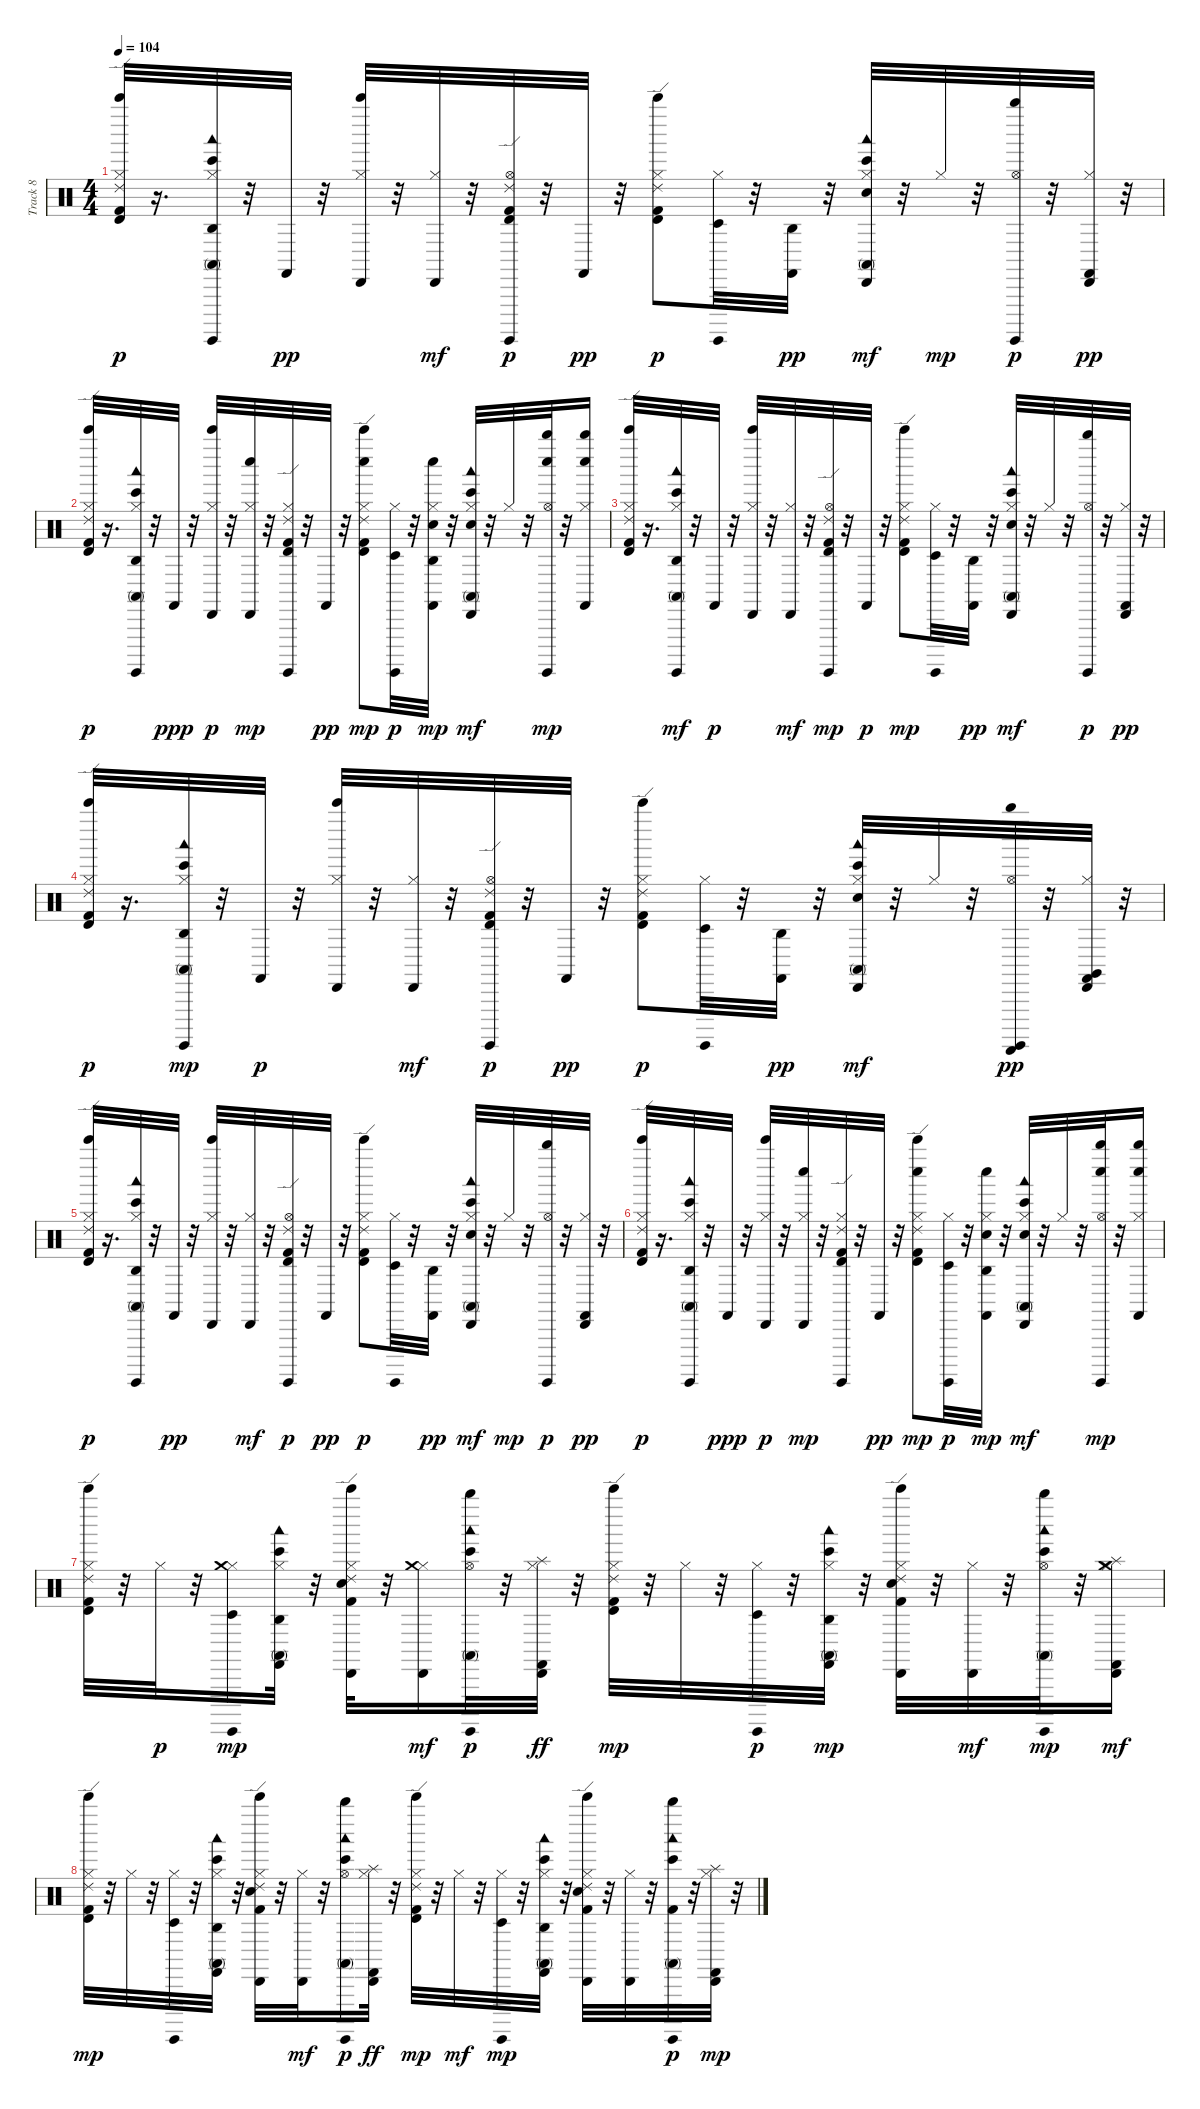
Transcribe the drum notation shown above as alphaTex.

\track ("Track 8" "Track 8") {instrument percussion}
\staff {score}
\articulation defaults
\ts (4 4)
\tempo 104
\clef neutral
\ks c
("Ride (edge) 2" "Timbale high (hit)" "Kick (hit) 2" "Hi-Hat (closed)" "Bell Tree (hit)").32{dy p} r.16{d} ("Bongo High (hit)" "Agogo high (hit)" "Conga high (mute)" "Hi-Hat (closed)" "Woodblock low (hit)" "Surdo (hit)").32 r.32 "Castanets (hit)".32{dy pp} r.32 ("Cabasa (hit)" "Hi-Hat (closed)" "Bell Tree (hit)").32 r.32 ("Cabasa (hit)" "Hi-Hat (closed)").32{dy mf} r.32 ("Ride (edge) 2" "Timbale high (hit)" "Kick (hit) 2" "Hi-Hat (open)" "Surdo (hit)").32{dy p} r.32 "Castanets (hit)".32{dy pp} r.32 ("Ride (edge) 2" "Timbale high (hit)" "Kick (hit) 2" "Hi-Hat (closed)" "Bell Tree (hit)").8{dy p} ("Timbale low (hit)" "Hi-Hat (closed)" "Surdo (hit)").32 r.32 ("Agogo high (hit)" "Castanets (hit)").32{dy pp} r.32 ("Conga high (mute)" "Cabasa (hit)" "Bongo High (hit)" "Electric Snare (hit)" "Hi-Hat (closed)" "Woodblock low (hit)").32{dy mf} r.32 "Hi-Hat (closed)".32{dy mp} r.32 ("Whistle high (hit)" "Hi-Hat (open)" "Surdo (hit)").32{dy p} r.32 ("Cabasa (hit)" "Hi-Hat (closed)" "Castanets (hit)").32{dy pp} r.32 |
("Ride (edge) 2" "Timbale high (hit)" "Kick (hit) 2" "Hi-Hat (closed)" "Bell Tree (hit)").32{dy p} r.16{d} ("Conga high (mute)" "Agogo high (hit)" "Bongo High (hit)" "Hi-Hat (closed)" "Woodblock low (hit)" "Surdo (hit)").32 r.32 "Castanets (hit)".32{dy ppp} r.32 ("Cabasa (hit)" "Hi-Hat (closed)" "Bell Tree (hit)").32{dy p} r.32 ("Cabasa (hit)" "Hi-Hat (closed)" "Whistle low (hit)").32{dy mp} r.32 ("Ride (edge) 2" "Timbale high (hit)" "Kick (hit) 2" "Hi-Hat (closed)" "Surdo (hit)").32 r.32 "Castanets (hit)".32{dy pp} r.32 ("Ride (edge) 2" "Timbale high (hit)" "Kick (hit) 2" "Hi-Hat (closed)" "Bell Tree (hit)" "Whistle low (hit)").8{dy mp} ("Timbale low (hit)" "Hi-Hat (closed)" "Surdo (hit)").32{dy p} r.32 ("Agogo high (hit)" "Electric Snare (hit)" "Hi-Hat (closed)" "Castanets (hit)" "Whistle low (hit)").32{dy mp} r.32 ("Bongo High (hit)" "Cabasa (hit)" "Conga high (mute)" "Hi-Hat (closed)" "Electric Snare (hit)" "Woodblock low (hit)").32{dy mf} r.32 "Hi-Hat (closed)".32 r.32 ("Whistle high (hit)" "Hi-Hat (open)" "Surdo (hit)" "Whistle low (hit)").32{dy mp} r.32 ("Whistle high (hit)" "Hi-Hat (closed)" "Castanets (hit)" "Whistle low (hit)").16 |
("Ride (edge) 2" "Timbale high (hit)" "Kick (hit) 2" "Hi-Hat (closed)" "Bell Tree (hit)").32 r.16{d} ("Bongo High (hit)" "Agogo high (hit)" "Conga high (mute)" "Hi-Hat (closed)" "Surdo (hit)" "Woodblock low (hit)").32{dy mf} r.32 "Castanets (hit)".32{dy p} r.32 ("Cabasa (hit)" "Hi-Hat (closed)" "Bell Tree (hit)").32 r.32 ("Cabasa (hit)" "Hi-Hat (closed)").32{dy mf} r.32 ("Ride (edge) 2" "Timbale high (hit)" "Kick (hit) 2" "Hi-Hat (open)" "Surdo (hit)").32{dy mp} r.32 "Castanets (hit)".32{dy p} r.32 ("Ride (edge) 2" "Timbale high (hit)" "Kick (hit) 2" "Hi-Hat (closed)" "Bell Tree (hit)").8{dy mp} ("Timbale low (hit)" "Hi-Hat (closed)" "Surdo (hit)").32 r.32 ("Agogo high (hit)" "Castanets (hit)").32{dy pp} r.32 ("Bongo High (hit)" "Cabasa (hit)" "Conga high (mute)" "Electric Snare (hit)" "Hi-Hat (closed)" "Woodblock low (hit)").32{dy mf} r.32 "Hi-Hat (closed)".32 r.32 ("Whistle high (hit)" "Hi-Hat (open)" "Surdo (hit)").32{dy p} r.32 ("Cabasa (hit)" "Hi-Hat (closed)" "Castanets (hit)").32{dy pp} r.32 |
("Ride (edge) 2" "Timbale high (hit)" "Kick (hit) 2" "Hi-Hat (closed)" "Bell Tree (hit)").32{dy p} r.16{d} ("Bongo High (hit)" "Agogo high (hit)" "Conga high (mute)" "Hi-Hat (closed)" "Woodblock low (hit)" "Surdo (hit)").32{dy mp} r.32 "Castanets (hit)".32{dy p} r.32 ("Cabasa (hit)" "Hi-Hat (closed)" "Bell Tree (hit)").32 r.32 ("Cabasa (hit)" "Hi-Hat (closed)").32{dy mf} r.32 ("Ride (edge) 2" "Timbale high (hit)" "Kick (hit) 2" "Hi-Hat (open)" "Surdo (hit)").32{dy p} r.32 "Castanets (hit)".32{dy pp} r.32 ("Ride (edge) 2" "Timbale high (hit)" "Kick (hit) 2" "Hi-Hat (closed)" "Bell Tree (hit)").8{dy p} ("Timbale low (hit)" "Hi-Hat (closed)" "Surdo (hit)").32 r.32 ("Agogo high (hit)" "Castanets (hit)").32{dy pp} r.32 ("Bongo High (hit)" "Cabasa (hit)" "Conga high (mute)" "Electric Snare (hit)" "Hi-Hat (closed)" "Woodblock low (hit)").32{dy mf} r.32 "Hi-Hat (closed)".32 r.32 ("Whistle high (hit)" "Hi-Hat (open)" "Surdo (hit)" "Guiro (scrap-return)").32{dy pp} r.32 ("Cabasa (hit)" "Hi-Hat (closed)" "Castanets (hit)" "Claves (hit)").32 r.32 |
("Ride (edge) 2" "Timbale high (hit)" "Kick (hit) 2" "Hi-Hat (closed)" "Bell Tree (hit)").32{dy p} r.16{d} ("Bongo High (hit)" "Agogo high (hit)" "Conga high (mute)" "Hi-Hat (closed)" "Woodblock low (hit)" "Surdo (hit)").32 r.32 "Castanets (hit)".32{dy pp} r.32 ("Cabasa (hit)" "Hi-Hat (closed)" "Bell Tree (hit)").32 r.32 ("Cabasa (hit)" "Hi-Hat (closed)").32{dy mf} r.32 ("Ride (edge) 2" "Timbale high (hit)" "Kick (hit) 2" "Hi-Hat (open)" "Surdo (hit)").32{dy p} r.32 "Castanets (hit)".32{dy pp} r.32 ("Ride (edge) 2" "Timbale high (hit)" "Kick (hit) 2" "Hi-Hat (closed)" "Bell Tree (hit)").8{dy p} ("Timbale low (hit)" "Hi-Hat (closed)" "Surdo (hit)").32 r.32 ("Agogo high (hit)" "Castanets (hit)").32{dy pp} r.32 ("Conga high (mute)" "Cabasa (hit)" "Bongo High (hit)" "Electric Snare (hit)" "Hi-Hat (closed)" "Woodblock low (hit)").32{dy mf} r.32 "Hi-Hat (closed)".32{dy mp} r.32 ("Whistle high (hit)" "Hi-Hat (open)" "Surdo (hit)").32{dy p} r.32 ("Cabasa (hit)" "Hi-Hat (closed)" "Castanets (hit)").32{dy pp} r.32 |
("Ride (edge) 2" "Timbale high (hit)" "Kick (hit) 2" "Hi-Hat (closed)" "Bell Tree (hit)").32{dy p} r.16{d} ("Conga high (mute)" "Agogo high (hit)" "Bongo High (hit)" "Hi-Hat (closed)" "Woodblock low (hit)" "Surdo (hit)").32 r.32 "Castanets (hit)".32{dy ppp} r.32 ("Cabasa (hit)" "Hi-Hat (closed)" "Bell Tree (hit)").32{dy p} r.32 ("Cabasa (hit)" "Hi-Hat (closed)" "Whistle low (hit)").32{dy mp} r.32 ("Ride (edge) 2" "Timbale high (hit)" "Kick (hit) 2" "Hi-Hat (closed)" "Surdo (hit)").32 r.32 "Castanets (hit)".32{dy pp} r.32 ("Ride (edge) 2" "Timbale high (hit)" "Kick (hit) 2" "Hi-Hat (closed)" "Bell Tree (hit)" "Whistle low (hit)").8{dy mp} ("Timbale low (hit)" "Hi-Hat (closed)" "Surdo (hit)").32{dy p} r.32 ("Agogo high (hit)" "Electric Snare (hit)" "Hi-Hat (closed)" "Castanets (hit)" "Whistle low (hit)").32{dy mp} r.32 ("Bongo High (hit)" "Cabasa (hit)" "Conga high (mute)" "Hi-Hat (closed)" "Electric Snare (hit)" "Woodblock low (hit)").32{dy mf} r.32 "Hi-Hat (closed)".32 r.32 ("Whistle high (hit)" "Hi-Hat (open)" "Surdo (hit)" "Whistle low (hit)").32{dy mp} r.32 ("Whistle high (hit)" "Hi-Hat (closed)" "Castanets (hit)" "Whistle low (hit)").16 |
("Timbale high (hit)" "Ride (edge) 2" "Kick (hit) 2" "Bell Tree (hit)" "Hi-Hat (closed)").32 r.32 "Hi-Hat (closed)".32{dy p} r.32 ("Timbale low (hit)" "Surdo (hit)" "Hi-Hat (closed)" "Crash medium (hit)").16{dy mp} ("Agogo high (hit)" "Bongo High (hit)" "Conga high (mute)" "Woodblock low (hit)" "Castanets (hit)" "Hi-Hat (closed)").32 r.32 ("Cabasa (hit)" "Ride (edge) 2" "Kick (hit) 2" "Electric Snare (hit)" "Bell Tree (hit)" "Hi-Hat (closed)").32 r.32 ("Cabasa (hit)" "Hi-Hat (closed)" "Crash medium (hit)").16{dy mf} ("Whistle high (hit)" "Bongo High (hit)" "Conga high (mute)" "Woodblock low (hit)" "Surdo (hit)" "Hi-Hat (open)").32{dy p} r.32 ("Cabasa (hit)" "Castanets (hit)" "Hi-Hat (closed)" "Splash (hit)").32{dy ff} r.32 ("Timbale high (hit)" "Ride (edge) 2" "Kick (hit) 2" "Bell Tree (hit)" "Hi-Hat (closed)").32{dy mp} r.32 "Hi-Hat (closed)".32 r.32 ("Timbale low (hit)" "Surdo (hit)" "Hi-Hat (closed)").32{dy p} r.32 ("Agogo high (hit)" "Bongo High (hit)" "Conga high (mute)" "Woodblock low (hit)" "Castanets (hit)" "Hi-Hat (closed)").32{dy mp} r.32 ("Cabasa (hit)" "Ride (edge) 2" "Kick (hit) 2" "Electric Snare (hit)" "Bell Tree (hit)" "Hi-Hat (closed)").32 r.32 ("Cabasa (hit)" "Hi-Hat (closed)").32{dy mf} r.32 ("Whistle high (hit)" "Bongo High (hit)" "Conga high (mute)" "Woodblock low (hit)" "Surdo (hit)" "Hi-Hat (open)").32{dy mp} r.32 ("Cabasa (hit)" "Castanets (hit)" "Hi-Hat (closed)" "Splash (hit)" "Crash medium (hit)").16{dy mf} |
("Timbale high (hit)" "Ride (edge) 2" "Kick (hit) 2" "Bell Tree (hit)" "Hi-Hat (closed)").32{dy mp} r.32 "Hi-Hat (closed)".32 r.32 ("Timbale low (hit)" "Surdo (hit)" "Hi-Hat (closed)").32 r.32 ("Agogo high (hit)" "Bongo High (hit)" "Conga high (mute)" "Woodblock low (hit)" "Castanets (hit)" "Hi-Hat (closed)").32 r.32 ("Cabasa (hit)" "Ride (edge) 2" "Kick (hit) 2" "Electric Snare (hit)" "Bell Tree (hit)" "Hi-Hat (closed)").32 r.32 ("Cabasa (hit)" "Hi-Hat (closed)").32{dy mf} r.32 ("Whistle high (hit)" "Bongo High (hit)" "Conga high (mute)" "Woodblock low (hit)" "Surdo (hit)" "Hi-Hat (open)").16{dy p} ("Cabasa (hit)" "Castanets (hit)" "Hi-Hat (closed)" "Splash (hit)").32{dy ff} r.32 ("Timbale high (hit)" "Ride (edge) 2" "Kick (hit) 2" "Bell Tree (hit)" "Hi-Hat (closed)").32{dy mp} r.32 "Hi-Hat (closed)".32{dy mf} r.32 ("Timbale low (hit)" "Surdo (hit)" "Hi-Hat (closed)").32{dy mp} r.32 ("Agogo high (hit)" "Bongo High (hit)" "Conga high (mute)" "Woodblock low (hit)" "Castanets (hit)" "Hi-Hat (closed)").32 r.32 ("Cabasa (hit)" "Ride (edge) 2" "Kick (hit) 2" "Electric Snare (hit)" "Bell Tree (hit)" "Hi-Hat (closed)").32 r.32 ("Cabasa (hit)" "Hi-Hat (closed)").32 r.32 ("Whistle high (hit)" "Bongo High (hit)" "Conga high (mute)" "Kick (hit) 2" "Woodblock low (hit)" "Surdo (hit)").32{dy p} r.32 ("Cabasa (hit)" "Castanets (hit)" "Hi-Hat (closed)" "Splash (hit)").32{dy mp} r.32
